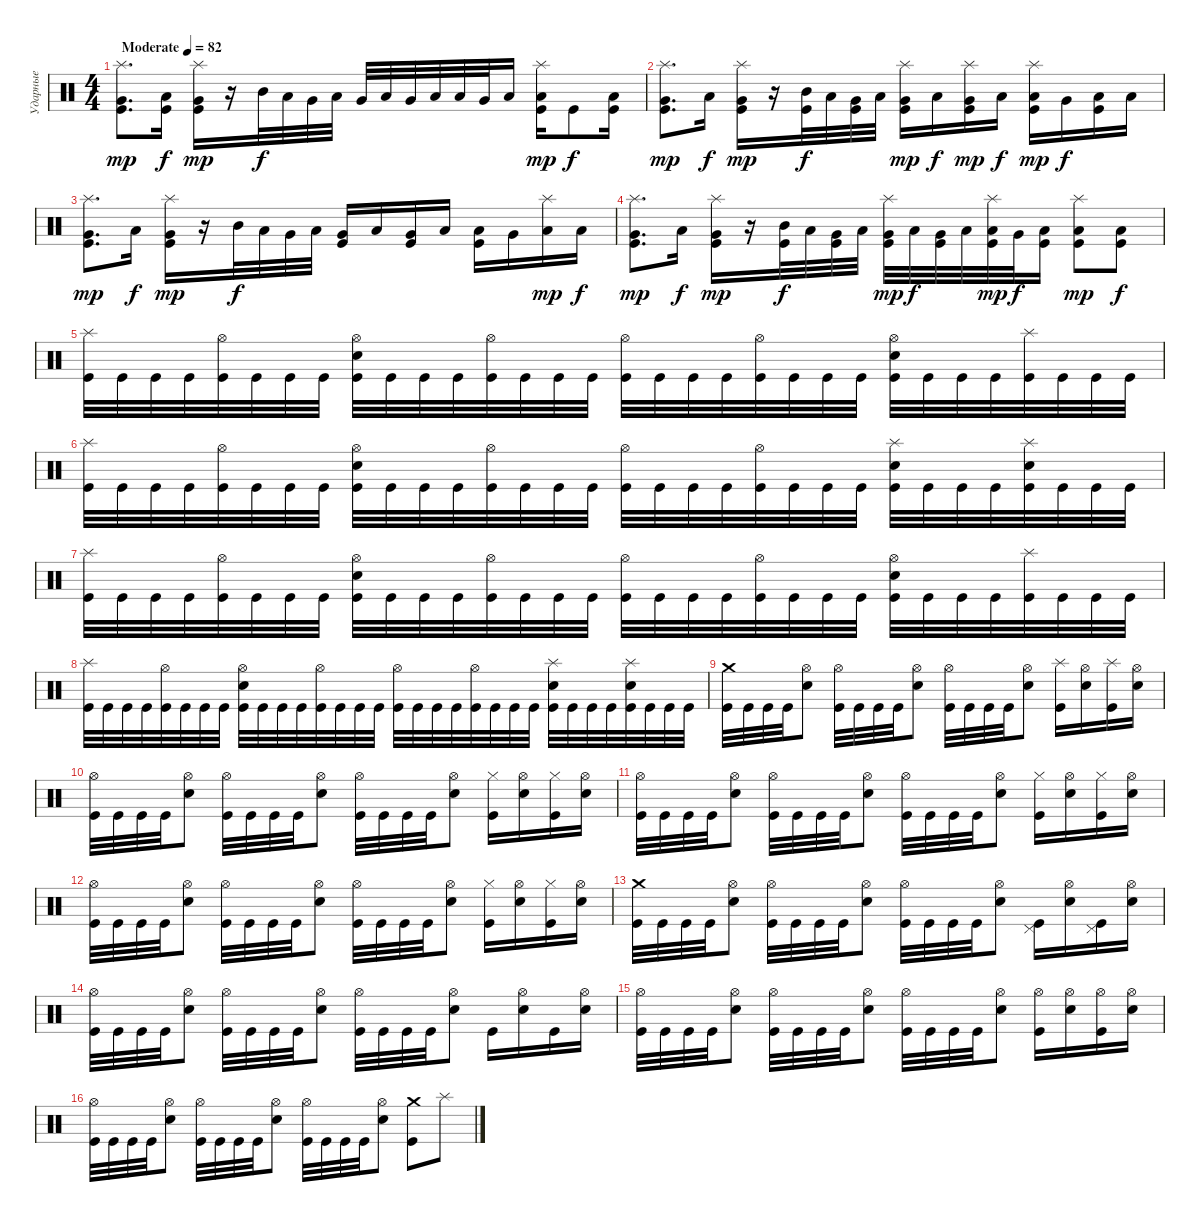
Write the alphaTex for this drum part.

\track ("Ударные" "Ударные") {instrument percussion}
\staff {score}
\articulation defaults
\ts (4 4)
\tempo (82 "Moderate")
\clef neutral
\ks c
("Splash (hit)" "Very Low Tom (hit)" "Kick (hit)").8{d dy mp} ("Low Tom (hit)" "Kick (hit)").16{dy f} ("Splash (hit)" "Very Low Tom (hit)" "Kick (hit)").16{dy mp} r.16 "Mid Tom (hit)".32{dy f} "Low Tom (hit)".32 "Very Low Tom (hit)".32 "Low Floor Tom (hit)".32 "Very Low Tom (hit)".32 "Low Floor Tom (hit)".32 "Very Low Tom (hit)".32 "Low Tom (hit)".32 "Low Floor Tom (hit)".32 "Very Low Tom (hit)".32 "Low Floor Tom (hit)".16 ("Splash (hit)" "Low Floor Tom (hit)" "Kick (hit)").16{dy mp} "Kick (hit)".8{dy f} ("Low Floor Tom (hit)" "Kick (hit)").16 |
("Splash (hit)" "Very Low Tom (hit)" "Kick (hit)").8{d dy mp} "Low Tom (hit)".16{dy f} ("Splash (hit)" "Very Low Tom (hit)" "Kick (hit)").16{dy mp} r.16 ("Mid Tom (hit)" "Kick (hit)").32{dy f} "Low Tom (hit)".32 ("Very Low Tom (hit)" "Kick (hit)").32 "Low Floor Tom (hit)".32 ("Splash (hit)" "Very Low Tom (hit)" "Kick (hit)").16{dy mp} "Low Floor Tom (hit)".16{dy f} ("Splash (hit)" "Very Low Tom (hit)" "Kick (hit)").16{dy mp} "Low Tom (hit)".16{dy f} ("Splash (hit)" "Low Floor Tom (hit)" "Kick (hit)").16{dy mp} "Very Low Tom (hit)".16{dy f} ("Low Floor Tom (hit)" "Kick (hit)").16 "Low Floor Tom (hit)".16 |
("Splash (hit)" "Very Low Tom (hit)" "Kick (hit)").8{d dy mp} "Low Tom (hit)".16{dy f} ("Splash (hit)" "Very Low Tom (hit)" "Kick (hit)").16{dy mp} r.16 "Mid Tom (hit)".32{dy f} "Low Tom (hit)".32 "Very Low Tom (hit)".32 "Low Floor Tom (hit)".32 ("Very Low Tom (hit)" "Kick (hit)").16 "Low Floor Tom (hit)".16 ("Very Low Tom (hit)" "Kick (hit)").16 "Low Tom (hit)".16 ("Low Floor Tom (hit)" "Kick (hit)").16 "Very Low Tom (hit)".16 ("Splash (hit)" "Low Floor Tom (hit)").16{dy mp} "Low Floor Tom (hit)".16{dy f} |
("Splash (hit)" "Very Low Tom (hit)" "Kick (hit)").8{d dy mp} "Low Tom (hit)".16{dy f} ("Splash (hit)" "Very Low Tom (hit)" "Kick (hit)").16{dy mp} r.16 ("Mid Tom (hit)" "Kick (hit)").32{dy f} "Low Tom (hit)".32 ("Very Low Tom (hit)" "Kick (hit)").32 "Low Floor Tom (hit)".32 ("Splash (hit)" "Very Low Tom (hit)" "Kick (hit)").32{dy mp} "Low Floor Tom (hit)".32{dy f} ("Very Low Tom (hit)" "Kick (hit)").32 "Low Tom (hit)".32 ("Splash (hit)" "Low Floor Tom (hit)" "Kick (hit)").32{dy mp} "Very Low Tom (hit)".32{dy f} ("Low Floor Tom (hit)" "Kick (hit)").16 ("Splash (hit)" "Low Floor Tom (hit)" "Kick (hit)").8{dy mp} ("Low Floor Tom (hit)" "Kick (hit)").8{dy f} |
("Splash (hit)" "Kick (hit)").32 "Kick (hit)".32 "Kick (hit)".32 "Kick (hit)".32 ("Hi-Hat (open)" "Kick (hit)").32 "Kick (hit)".32 "Kick (hit)".32 "Kick (hit)".32 ("Hi-Hat (open)" "Electric Snare (hit)" "Kick (hit)").32 "Kick (hit)".32 "Kick (hit)".32 "Kick (hit)".32 ("Hi-Hat (open)" "Kick (hit)").32 "Kick (hit)".32 "Kick (hit)".32 "Kick (hit)".32 ("Hi-Hat (open)" "Kick (hit)").32 "Kick (hit)".32 "Kick (hit)".32 "Kick (hit)".32 ("Hi-Hat (open)" "Kick (hit)").32 "Kick (hit)".32 "Kick (hit)".32 "Kick (hit)".32 ("Hi-Hat (open)" "Electric Snare (hit)" "Kick (hit)").32 "Kick (hit)".32 "Kick (hit)".32 "Kick (hit)".32 ("Splash (hit)" "Kick (hit)").32 "Kick (hit)".32 "Kick (hit)".32 "Kick (hit)".32 |
("Splash (hit)" "Kick (hit)").32 "Kick (hit)".32 "Kick (hit)".32 "Kick (hit)".32 ("Hi-Hat (open)" "Kick (hit)").32 "Kick (hit)".32 "Kick (hit)".32 "Kick (hit)".32 ("Hi-Hat (open)" "Electric Snare (hit)" "Kick (hit)").32 "Kick (hit)".32 "Kick (hit)".32 "Kick (hit)".32 ("Hi-Hat (open)" "Kick (hit)").32 "Kick (hit)".32 "Kick (hit)".32 "Kick (hit)".32 ("Hi-Hat (open)" "Kick (hit)").32 "Kick (hit)".32 "Kick (hit)".32 "Kick (hit)".32 ("Hi-Hat (open)" "Kick (hit)").32 "Kick (hit)".32 "Kick (hit)".32 "Kick (hit)".32 ("Splash (hit)" "Electric Snare (hit)" "Kick (hit)").32 "Kick (hit)".32 "Kick (hit)".32 "Kick (hit)".32 ("Splash (hit)" "Electric Snare (hit)" "Kick (hit)").32 "Kick (hit)".32 "Kick (hit)".32 "Kick (hit)".32 |
("Splash (hit)" "Kick (hit)").32 "Kick (hit)".32 "Kick (hit)".32 "Kick (hit)".32 ("Hi-Hat (open)" "Kick (hit)").32 "Kick (hit)".32 "Kick (hit)".32 "Kick (hit)".32 ("Hi-Hat (open)" "Electric Snare (hit)" "Kick (hit)").32 "Kick (hit)".32 "Kick (hit)".32 "Kick (hit)".32 ("Hi-Hat (open)" "Kick (hit)").32 "Kick (hit)".32 "Kick (hit)".32 "Kick (hit)".32 ("Hi-Hat (open)" "Kick (hit)").32 "Kick (hit)".32 "Kick (hit)".32 "Kick (hit)".32 ("Hi-Hat (open)" "Kick (hit)").32 "Kick (hit)".32 "Kick (hit)".32 "Kick (hit)".32 ("Hi-Hat (open)" "Electric Snare (hit)" "Kick (hit)").32 "Kick (hit)".32 "Kick (hit)".32 "Kick (hit)".32 ("Splash (hit)" "Kick (hit)").32 "Kick (hit)".32 "Kick (hit)".32 "Kick (hit)".32 |
("Splash (hit)" "Kick (hit)").32 "Kick (hit)".32 "Kick (hit)".32 "Kick (hit)".32 ("Hi-Hat (open)" "Kick (hit)").32 "Kick (hit)".32 "Kick (hit)".32 "Kick (hit)".32 ("Hi-Hat (open)" "Electric Snare (hit)" "Kick (hit)").32 "Kick (hit)".32 "Kick (hit)".32 "Kick (hit)".32 ("Hi-Hat (open)" "Kick (hit)").32 "Kick (hit)".32 "Kick (hit)".32 "Kick (hit)".32 ("Hi-Hat (open)" "Kick (hit)").32 "Kick (hit)".32 "Kick (hit)".32 "Kick (hit)".32 ("Hi-Hat (open)" "Kick (hit)").32 "Kick (hit)".32 "Kick (hit)".32 "Kick (hit)".32 ("Splash (hit)" "Electric Snare (hit)" "Kick (hit)").32 "Kick (hit)".32 "Kick (hit)".32 "Kick (hit)".32 ("Splash (hit)" "Electric Snare (hit)" "Kick (hit)").32 "Kick (hit)".32 "Kick (hit)".32 "Kick (hit)".32 |
("Crash medium (hit)" "Kick (hit)").32 "Kick (hit)".32 "Kick (hit)".32 "Kick (hit)".32 ("Hi-Hat (open)" "Electric Snare (hit)").8 ("Hi-Hat (open)" "Kick (hit)").32 "Kick (hit)".32 "Kick (hit)".32 "Kick (hit)".32 ("Hi-Hat (open)" "Electric Snare (hit)").8 ("Hi-Hat (open)" "Kick (hit)").32 "Kick (hit)".32 "Kick (hit)".32 "Kick (hit)".32 ("Hi-Hat (open)" "Electric Snare (hit)").8 ("Splash (hit)" "Kick (hit)").16 ("Hi-Hat (open)" "Electric Snare (hit)").16 ("Splash (hit)" "Kick (hit)").16 ("Hi-Hat (open)" "Electric Snare (hit)").16 |
("Hi-Hat (open)" "Kick (hit)").32 "Kick (hit)".32 "Kick (hit)".32 "Kick (hit)".32 ("Hi-Hat (open)" "Electric Snare (hit)").8 ("Hi-Hat (open)" "Kick (hit)").32 "Kick (hit)".32 "Kick (hit)".32 "Kick (hit)".32 ("Hi-Hat (open)" "Electric Snare (hit)").8 ("Hi-Hat (open)" "Kick (hit)").32 "Kick (hit)".32 "Kick (hit)".32 "Kick (hit)".32 ("Hi-Hat (open)" "Electric Snare (hit)").8 ("Hi-Hat (closed)" "Kick (hit)").16 ("Hi-Hat (open)" "Electric Snare (hit)").16 ("Hi-Hat (closed)" "Kick (hit)").16 ("Hi-Hat (open)" "Electric Snare (hit)").16 |
("Hi-Hat (open)" "Kick (hit)").32 "Kick (hit)".32 "Kick (hit)".32 "Kick (hit)".32 ("Hi-Hat (open)" "Electric Snare (hit)").8 ("Hi-Hat (open)" "Kick (hit)").32 "Kick (hit)".32 "Kick (hit)".32 "Kick (hit)".32 ("Hi-Hat (open)" "Electric Snare (hit)").8 ("Hi-Hat (open)" "Kick (hit)").32 "Kick (hit)".32 "Kick (hit)".32 "Kick (hit)".32 ("Hi-Hat (open)" "Electric Snare (hit)").8 ("Hi-Hat (closed)" "Kick (hit)").16 ("Hi-Hat (open)" "Electric Snare (hit)").16 ("Hi-Hat (closed)" "Kick (hit)").16 ("Hi-Hat (open)" "Electric Snare (hit)").16 |
("Hi-Hat (open)" "Kick (hit)").32 "Kick (hit)".32 "Kick (hit)".32 "Kick (hit)".32 ("Hi-Hat (open)" "Electric Snare (hit)").8 ("Hi-Hat (open)" "Kick (hit)").32 "Kick (hit)".32 "Kick (hit)".32 "Kick (hit)".32 ("Hi-Hat (open)" "Electric Snare (hit)").8 ("Hi-Hat (open)" "Kick (hit)").32 "Kick (hit)".32 "Kick (hit)".32 "Kick (hit)".32 ("Hi-Hat (open)" "Electric Snare (hit)").8 ("Hi-Hat (closed)" "Kick (hit)").16 ("Hi-Hat (open)" "Electric Snare (hit)").16 ("Hi-Hat (closed)" "Kick (hit)").16 ("Hi-Hat (open)" "Electric Snare (hit)").16 |
("Crash medium (hit)" "Kick (hit)").32 "Kick (hit)".32 "Kick (hit)".32 "Kick (hit)".32 ("Hi-Hat (open)" "Electric Snare (hit)").8 ("Hi-Hat (open)" "Kick (hit)").32 "Kick (hit)".32 "Kick (hit)".32 "Kick (hit)".32 ("Hi-Hat (open)" "Electric Snare (hit)").8 ("Hi-Hat (open)" "Kick (hit)").32 "Kick (hit)".32 "Kick (hit)".32 "Kick (hit)".32 ("Hi-Hat (open)" "Electric Snare (hit)").8 ("Pedal Hi-Hat (hit)" "Kick (hit)").16 ("Hi-Hat (open)" "Electric Snare (hit)").16 ("Pedal Hi-Hat (hit)" "Kick (hit)").16 ("Hi-Hat (open)" "Electric Snare (hit)").16 |
("Hi-Hat (open)" "Kick (hit)").32 "Kick (hit)".32 "Kick (hit)".32 "Kick (hit)".32 ("Hi-Hat (open)" "Electric Snare (hit)").8 ("Hi-Hat (open)" "Kick (hit)").32 "Kick (hit)".32 "Kick (hit)".32 "Kick (hit)".32 ("Hi-Hat (open)" "Electric Snare (hit)").8 ("Hi-Hat (open)" "Kick (hit)").32 "Kick (hit)".32 "Kick (hit)".32 "Kick (hit)".32 ("Hi-Hat (open)" "Electric Snare (hit)").8 "Kick (hit)".16 ("Hi-Hat (open)" "Electric Snare (hit)").16 "Kick (hit)".16 ("Hi-Hat (open)" "Electric Snare (hit)").16 |
("Hi-Hat (open)" "Kick (hit)").32 "Kick (hit)".32 "Kick (hit)".32 "Kick (hit)".32 ("Hi-Hat (open)" "Electric Snare (hit)").8 ("Hi-Hat (open)" "Kick (hit)").32 "Kick (hit)".32 "Kick (hit)".32 "Kick (hit)".32 ("Hi-Hat (open)" "Electric Snare (hit)").8 ("Hi-Hat (open)" "Kick (hit)").32 "Kick (hit)".32 "Kick (hit)".32 "Kick (hit)".32 ("Hi-Hat (open)" "Electric Snare (hit)").8 ("Hi-Hat (open)" "Kick (hit)").16 ("Hi-Hat (open)" "Electric Snare (hit)").16 ("Hi-Hat (open)" "Kick (hit)").16 ("Hi-Hat (open)" "Electric Snare (hit)").16 |
("Hi-Hat (open)" "Kick (hit)").32 "Kick (hit)".32 "Kick (hit)".32 "Kick (hit)".32 ("Hi-Hat (open)" "Electric Snare (hit)").8 ("Hi-Hat (open)" "Kick (hit)").32 "Kick (hit)".32 "Kick (hit)".32 "Kick (hit)".32 ("Hi-Hat (open)" "Electric Snare (hit)").8 ("Hi-Hat (open)" "Kick (hit)").32 "Kick (hit)".32 "Kick (hit)".32 "Kick (hit)".32 ("Hi-Hat (open)" "Electric Snare (hit)").8 ("Crash medium (hit)" "Kick (hit)").8 "Splash (hit)".8
